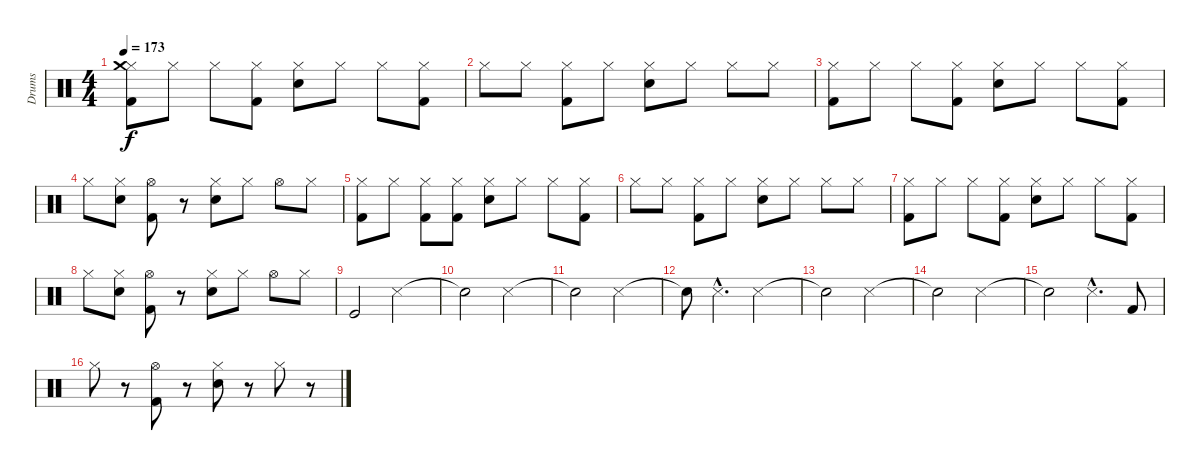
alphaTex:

\track ("Drums" "Drums") {instrument percussion}
\staff {score}
\articulation defaults
\ts (4 4)
\tempo 173
\clef neutral
\ks c
("Hi-Hat (closed)" "Kick (hit) 2" "Crash medium (hit)").8{dy f} "Hi-Hat (closed)".8 "Hi-Hat (closed)".8 ("Hi-Hat (closed)" "Kick (hit) 2").8 ("Hi-Hat (closed)" "Electric Snare (hit)").8 "Hi-Hat (closed)".8 "Hi-Hat (closed)".8 ("Hi-Hat (closed)" "Kick (hit) 2").8 |
"Hi-Hat (closed)".8 "Hi-Hat (closed)".8 ("Hi-Hat (closed)" "Kick (hit) 2").8 "Hi-Hat (closed)".8 ("Hi-Hat (closed)" "Electric Snare (hit)").8 "Hi-Hat (closed)".8 "Hi-Hat (closed)".8 "Hi-Hat (closed)".8 |
("Hi-Hat (closed)" "Kick (hit) 2").8 "Hi-Hat (closed)".8 "Hi-Hat (closed)".8 ("Hi-Hat (closed)" "Kick (hit) 2").8 ("Hi-Hat (closed)" "Electric Snare (hit)").8 "Hi-Hat (closed)".8 "Hi-Hat (closed)".8 ("Hi-Hat (closed)" "Kick (hit) 2").8 |
"Hi-Hat (closed)".8 ("Hi-Hat (closed)" "Electric Snare (hit)").8 ("Hi-Hat (open)" "Kick (hit) 2").8 r.8 ("Hi-Hat (closed)" "Electric Snare (hit)").8 "Hi-Hat (closed)".8 "Hi-Hat (open)".8 "Hi-Hat (closed)".8 |
("Hi-Hat (closed)" "Kick (hit) 2").8 "Hi-Hat (closed)".8 ("Hi-Hat (closed)" "Kick (hit) 2").8 ("Hi-Hat (closed)" "Kick (hit) 2").8 ("Hi-Hat (closed)" "Electric Snare (hit)").8 "Hi-Hat (closed)".8 "Hi-Hat (closed)".8 ("Hi-Hat (closed)" "Kick (hit) 2").8 |
"Hi-Hat (closed)".8 "Hi-Hat (closed)".8 ("Hi-Hat (closed)" "Kick (hit) 2").8 "Hi-Hat (closed)".8 ("Hi-Hat (closed)" "Electric Snare (hit)").8 "Hi-Hat (closed)".8 "Hi-Hat (closed)".8 "Hi-Hat (closed)".8 |
("Hi-Hat (closed)" "Kick (hit) 2").8 "Hi-Hat (closed)".8 "Hi-Hat (closed)".8 ("Hi-Hat (closed)" "Kick (hit) 2").8 ("Hi-Hat (closed)" "Electric Snare (hit)").8 "Hi-Hat (closed)".8 "Hi-Hat (closed)".8 ("Hi-Hat (closed)" "Kick (hit) 2").8 |
"Hi-Hat (closed)".8 ("Hi-Hat (closed)" "Electric Snare (hit)").8 ("Hi-Hat (open)" "Kick (hit) 2").8 r.8 ("Hi-Hat (closed)" "Electric Snare (hit)").8 "Hi-Hat (closed)".8 "Hi-Hat (open)".8 "Hi-Hat (closed)".8 |
"Kick (hit)".2 "Metronome (hit)".2 |
"Snare (hit)"{t}.2 "Metronome (hit)".2 |
"Snare (hit)"{t}.2 "Metronome (hit)".2 |
"Snare (hit)"{t}.8 "Metronome (hit)"{hac}.4{d} "Metronome (hit)".2 |
"Snare (hit)"{t}.2 "Metronome (hit)".2 |
"Snare (hit)"{t}.2 "Metronome (hit)".2 |
"Snare (hit)"{t}.2 "Metronome (hit)"{hac}.4{d} "Kick (hit) 2".8 |
"Hi-Hat (closed)".8 r.8 ("Hi-Hat (open)" "Kick (hit) 2").8 r.8 ("Hi-Hat (closed)" "Electric Snare (hit)").8 r.8 "Hi-Hat (closed)".8 r.8
